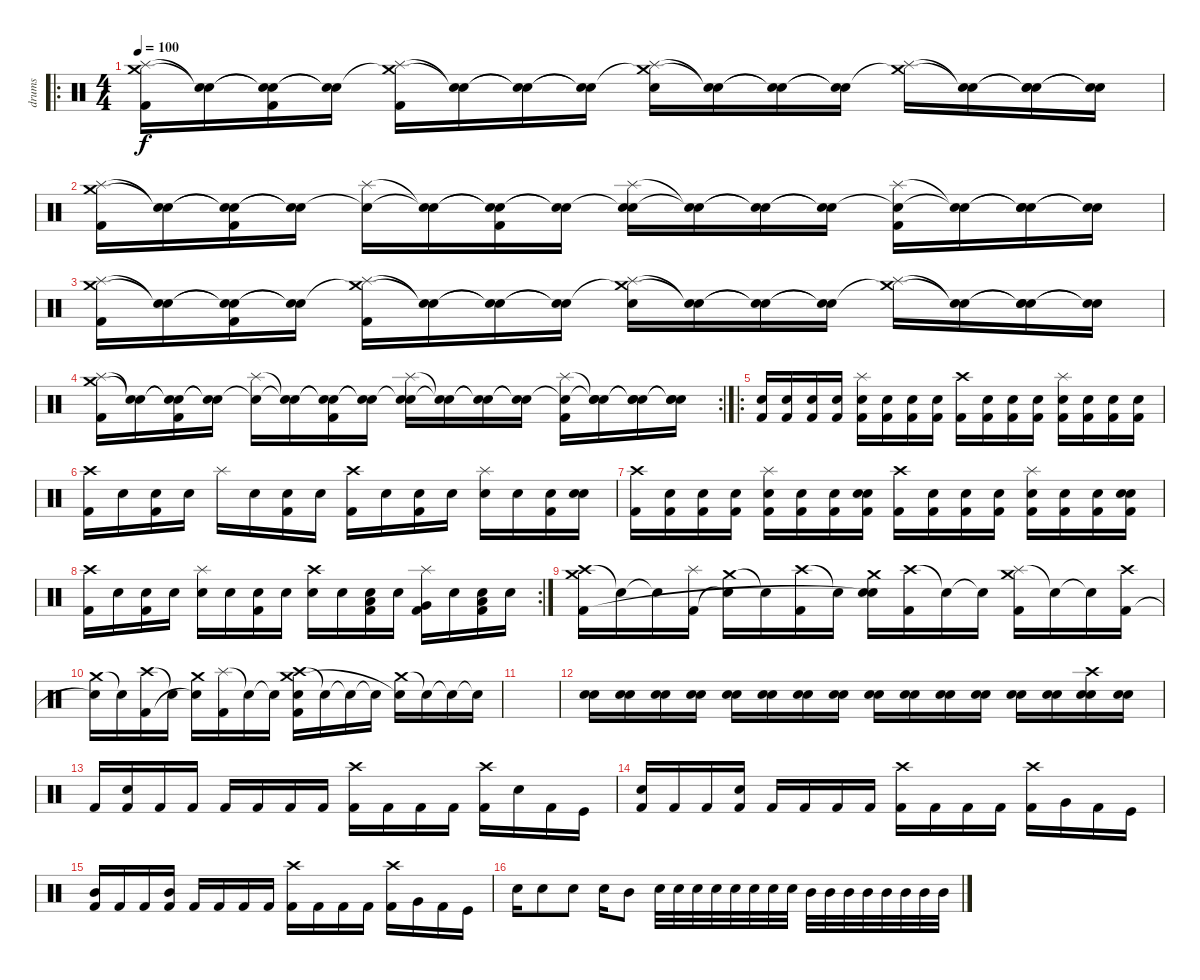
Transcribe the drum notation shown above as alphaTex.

\track ("drums " "drums ") {instrument percussion}
\staff {score}
\articulation defaults
\ro
\ts (4 4)
\tempo 100
\clef neutral
\ks c
("Splash (hit)" "Crash medium (hit)" "Kick (hit) 2").16{dy f} ("Snare (hit)"{t} "Snare (hit)"{t}).16 ("Snare (hit)"{t} "Snare (hit)"{t} "Kick (hit) 2").16 ("Snare (hit)"{t} "Snare (hit)"{t}).16 ("Splash (hit)" "Crash medium (hit)"{t} "Kick (hit) 2").16 ("Snare (hit)"{t} "Snare (hit)"{t}).16 ("Snare (hit)"{t} "Snare (hit)"{t}).16 ("Snare (hit)"{t} "Snare (hit)"{t}).16 ("Splash (hit)" "Crash medium (hit)"{t} "Electric Snare (hit)").16 ("Snare (hit)"{t} "Snare (hit)"{t}).16 ("Snare (hit)"{t} "Snare (hit)"{t}).16 ("Snare (hit)"{t} "Snare (hit)"{t}).16 ("Splash (hit)" "Crash medium (hit)"{t}).16 ("Snare (hit)"{t} "Snare (hit)"{t}).16 ("Snare (hit)"{t} "Snare (hit)"{t} "Electric Snare (hit)").16 ("Snare (hit)"{t} "Snare (hit)"{t}).16 |
("Splash (hit)" "Crash medium (hit)" "Kick (hit) 2").16 ("Snare (hit)"{t} "Snare (hit)"{t}).16 ("Snare (hit)"{t} "Snare (hit)"{t} "Kick (hit) 2").16 ("Snare (hit)"{t} "Snare (hit)"{t}).16 ("Splash (hit)" "Snare (hit)"{t}).16 ("Snare (hit)"{t} "Snare (hit)"{t}).16 ("Snare (hit)"{t} "Snare (hit)"{t} "Kick (hit) 2").16 ("Snare (hit)"{t} "Snare (hit)"{t}).16 ("Splash (hit)" "Snare (hit)"{t} "Electric Snare (hit)").16 ("Snare (hit)"{t} "Snare (hit)"{t}).16 ("Snare (hit)"{t} "Snare (hit)"{t}).16 ("Snare (hit)"{t} "Snare (hit)"{t}).16 ("Splash (hit)" "Snare (hit)"{t} "Kick (hit) 2").16 ("Snare (hit)"{t} "Snare (hit)"{t}).16 ("Snare (hit)"{t} "Snare (hit)"{t} "Electric Snare (hit)").16 ("Snare (hit)"{t} "Snare (hit)"{t}).16 |
("Splash (hit)" "Crash medium (hit)" "Kick (hit) 2").16 ("Snare (hit)"{t} "Snare (hit)"{t}).16 ("Snare (hit)"{t} "Snare (hit)"{t} "Kick (hit) 2").16 ("Snare (hit)"{t} "Snare (hit)"{t}).16 ("Splash (hit)" "Crash medium (hit)"{t} "Kick (hit) 2").16 ("Snare (hit)"{t} "Snare (hit)"{t}).16 ("Snare (hit)"{t} "Snare (hit)"{t}).16 ("Snare (hit)"{t} "Snare (hit)"{t}).16 ("Splash (hit)" "Crash medium (hit)"{t} "Electric Snare (hit)").16 ("Snare (hit)"{t} "Snare (hit)"{t}).16 ("Snare (hit)"{t} "Snare (hit)"{t}).16 ("Snare (hit)"{t} "Snare (hit)"{t}).16 ("Splash (hit)" "Crash medium (hit)"{t}).16 ("Snare (hit)"{t} "Snare (hit)"{t}).16 ("Snare (hit)"{t} "Snare (hit)"{t} "Electric Snare (hit)").16 ("Snare (hit)"{t} "Snare (hit)"{t}).16 |
\rc 2
("Splash (hit)" "Crash medium (hit)" "Kick (hit) 2").16 ("Snare (hit)"{t} "Snare (hit)"{t}).16 ("Snare (hit)"{t} "Snare (hit)"{t} "Kick (hit) 2").16 ("Snare (hit)"{t} "Snare (hit)"{t}).16 ("Splash (hit)" "Snare (hit)"{t}).16 ("Snare (hit)"{t} "Snare (hit)"{t}).16 ("Snare (hit)"{t} "Snare (hit)"{t} "Kick (hit) 2").16 ("Snare (hit)"{t} "Snare (hit)"{t}).16 ("Splash (hit)" "Snare (hit)"{t} "Electric Snare (hit)").16 ("Snare (hit)"{t} "Snare (hit)"{t}).16 ("Snare (hit)"{t} "Snare (hit)"{t}).16 ("Snare (hit)"{t} "Snare (hit)"{t}).16 ("Splash (hit)" "Snare (hit)"{t} "Kick (hit) 2").16 ("Snare (hit)"{t} "Snare (hit)"{t} "Electric Snare (hit)").16 ("Snare (hit)"{t} "Snare (hit)"{t} "Electric Snare (hit)").16 ("Snare (hit)"{t} "Snare (hit)"{t} "Electric Snare (hit)").16 |
\ro
("Snare (hit)" "Kick (hit) 2").16 ("Snare (hit)" "Kick (hit) 2").16 ("Snare (hit)" "Kick (hit) 2").16 ("Snare (hit)" "Kick (hit) 2").16 ("Splash (hit)" "Electric Snare (hit)" "Kick (hit) 2").16 ("Snare (hit)" "Kick (hit) 2").16 ("Snare (hit)" "Kick (hit) 2").16 ("Snare (hit)" "Kick (hit) 2").16 ("Crash high (hit)" "Kick (hit) 2").16 ("Snare (hit)" "Kick (hit) 2").16 ("Snare (hit)" "Kick (hit) 2").16 ("Snare (hit)" "Kick (hit) 2").16 ("Splash (hit)" "Electric Snare (hit)" "Kick (hit) 2").16 ("Snare (hit)" "Kick (hit) 2").16 ("Snare (hit)" "Kick (hit) 2").16 ("Snare (hit)" "Kick (hit) 2").16 |
("Crash high (hit)" "Kick (hit) 2").16 "Snare (hit)".16 ("Snare (hit)" "Kick (hit) 2").16 "Snare (hit)".16 "Splash (hit)".16 "Snare (hit)".16 ("Snare (hit)" "Kick (hit) 2").16 "Snare (hit)".16 ("Crash high (hit)" "Kick (hit) 2").16 "Snare (hit)".16 ("Snare (hit)" "Kick (hit) 2").16 "Snare (hit)".16 ("Splash (hit)" "Electric Snare (hit)").16 "Snare (hit)".16 ("Snare (hit)" "Kick (hit) 2").16 ("Snare (hit)" "Electric Snare (hit)").16 |
("Crash high (hit)" "Kick (hit) 2").16 ("Snare (hit)" "Kick (hit) 2").16 ("Snare (hit)" "Kick (hit) 2").16 ("Snare (hit)" "Kick (hit) 2").16 ("Splash (hit)" "Electric Snare (hit)" "Kick (hit) 2").16 ("Snare (hit)" "Kick (hit) 2").16 ("Snare (hit)" "Kick (hit) 2").16 ("Snare (hit)" "Electric Snare (hit)" "Kick (hit) 2").16 ("Crash high (hit)" "Kick (hit) 2").16 ("Snare (hit)" "Kick (hit) 2").16 ("Snare (hit)" "Kick (hit) 2").16 ("Snare (hit)" "Kick (hit) 2").16 ("Splash (hit)" "Electric Snare (hit)" "Kick (hit) 2").16 ("Snare (hit)" "Kick (hit) 2").16 ("Snare (hit)" "Kick (hit) 2").16 ("Snare (hit)" "Electric Snare (hit)" "Kick (hit) 2").16 |
\rc 2
("Crash high (hit)" "Kick (hit) 2").16 "Snare (hit)".16 ("Snare (hit)" "Kick (hit) 2").16 "Snare (hit)".16 ("Splash (hit)" "Electric Snare (hit)").16 "Snare (hit)".16 ("Snare (hit)" "Kick (hit) 2").16 "Snare (hit)".16 ("Crash high (hit)" "Electric Snare (hit)").16 "Snare (hit)".16 ("Snare (hit)" "Low Tom (hit)" "Kick (hit) 2").16 "Snare (hit)".16 ("Splash (hit)" "Very Low Tom (hit)" "Kick (hit) 2").16 "Snare (hit)".16 ("Snare (hit)" "Low Floor Tom (hit)" "Kick (hit) 2").16 "Snare (hit)".16 |
("Crash high (hit)" "Crash medium (hit)" "Kick (hit) 2").16 "Snare (hit)"{t}.16 "Snare (hit)"{t}.16 ("Splash (hit)" "Kick (hit) 2").16 ("Crash medium (hit)" "Snare (hit)"{t}).16 "Snare (hit)"{t}.16 ("Crash high (hit)" "Kick (hit) 2").16 "Snare (hit)"{t}.16 ("Crash medium (hit)" "Electric Snare (hit)" "Snare (hit)"{t}).16 ("Crash high (hit)" "Kick (hit) 2").16 "Snare (hit)"{t}.16 "Snare (hit)"{t}.16 ("Splash (hit)" "Crash medium (hit)" "Kick (hit) 2").16 "Snare (hit)"{t}.16 "Snare (hit)"{t}.16 ("Crash high (hit)" "Kick (hit) 2").16 |
("Crash medium (hit)" "Snare (hit)"{t}).16 "Snare (hit)"{t}.16 ("Crash high (hit)" "Kick (hit) 2").16 "Snare (hit)"{t}.16 ("Crash medium (hit)" "Snare (hit)"{t}).16 ("Splash (hit)" "Kick (hit) 2").16 "Snare (hit)"{t}.16 "Snare (hit)"{t}.16 ("Crash high (hit)" "Crash medium (hit)" "Electric Snare (hit)" "Kick (hit) 2").16 "Snare (hit)"{t}.16 "Snare (hit)"{t}.16 "Snare (hit)"{t}.16 ("Crash medium (hit)" "Snare (hit)"{t}).16 "Snare (hit)"{t}.16 "Snare (hit)"{t}.16 "Snare (hit)"{t}.16 |
|
("Electric Snare (hit)" "Snare (hit) 2").16{volume 4} ("Electric Snare (hit)" "Snare (hit) 2").16{volume 13} ("Electric Snare (hit)" "Snare (hit) 2").16 ("Electric Snare (hit)" "Snare (hit) 2").16 ("Electric Snare (hit)" "Snare (hit) 2").16 ("Electric Snare (hit)" "Snare (hit) 2").16 ("Electric Snare (hit)" "Snare (hit) 2").16 ("Electric Snare (hit)" "Snare (hit) 2").16 ("Electric Snare (hit)" "Snare (hit) 2").16 ("Electric Snare (hit)" "Snare (hit) 2").16 ("Electric Snare (hit)" "Snare (hit) 2").16 ("Electric Snare (hit)" "Snare (hit) 2").16 ("Electric Snare (hit)" "Snare (hit) 2").16 ("Electric Snare (hit)" "Snare (hit) 2").16 ("Crash high (hit)" "Electric Snare (hit)" "Snare (hit) 2").16 ("Electric Snare (hit)" "Snare (hit) 2").16 |
"Kick (hit) 2".16 ("Kick (hit) 2" "Snare (hit)").16 "Kick (hit) 2".16 "Kick (hit) 2".16 "Kick (hit) 2".16 "Kick (hit) 2".16 "Kick (hit) 2".16 "Kick (hit) 2".16 ("Crash high (hit)" "Kick (hit) 2").16 "Kick (hit) 2".16 "Kick (hit) 2".16 "Kick (hit) 2".16 ("Crash high (hit)" "Kick (hit) 2").16 "Snare (hit) 2".16 "Kick (hit) 2".16 "Kick (hit)".16 |
("Snare (hit) 2" "Kick (hit) 2").16 "Kick (hit) 2".16 "Kick (hit) 2".16 ("Snare (hit) 2" "Kick (hit) 2").16 "Kick (hit) 2".16 "Kick (hit) 2".16 "Kick (hit) 2".16 "Kick (hit) 2".16 ("Crash high (hit)" "Kick (hit) 2").16 "Kick (hit) 2".16 "Kick (hit) 2".16 "Kick (hit) 2".16 ("Crash high (hit)" "Kick (hit) 2").16 "Very Low Tom (hit)".16 "Kick (hit) 2".16 "Kick (hit)".16 |
("Mid Tom (hit)" "Kick (hit) 2").16 "Kick (hit) 2".16 "Kick (hit) 2".16 ("Mid Tom (hit)" "Kick (hit) 2").16 "Kick (hit) 2".16 "Kick (hit) 2".16 "Kick (hit) 2".16 "Kick (hit) 2".16 ("Crash high (hit)" "Kick (hit) 2").16 "Kick (hit) 2".16 "Kick (hit) 2".16 "Kick (hit) 2".16 ("Crash high (hit)" "Kick (hit) 2").16 "Very Low Tom (hit)".16 "Kick (hit) 2".16 "Kick (hit)".16 |
"Electric Snare (hit)".16 "Electric Snare (hit)".8 "Electric Snare (hit)".8 "Electric Snare (hit)".16 "Mid Tom (hit)".8 "Electric Snare (hit)".32 "Electric Snare (hit)".32 "Electric Snare (hit)".32 "Electric Snare (hit)".32 "Electric Snare (hit)".32 "Electric Snare (hit)".32 "Electric Snare (hit)".32 "Electric Snare (hit)".32 "Mid Tom (hit)".32 "Mid Tom (hit)".32 "Mid Tom (hit)".32 "Mid Tom (hit)".32 "Mid Tom (hit)".32 "Mid Tom (hit)".32 "Mid Tom (hit)".32 "Mid Tom (hit)".32
